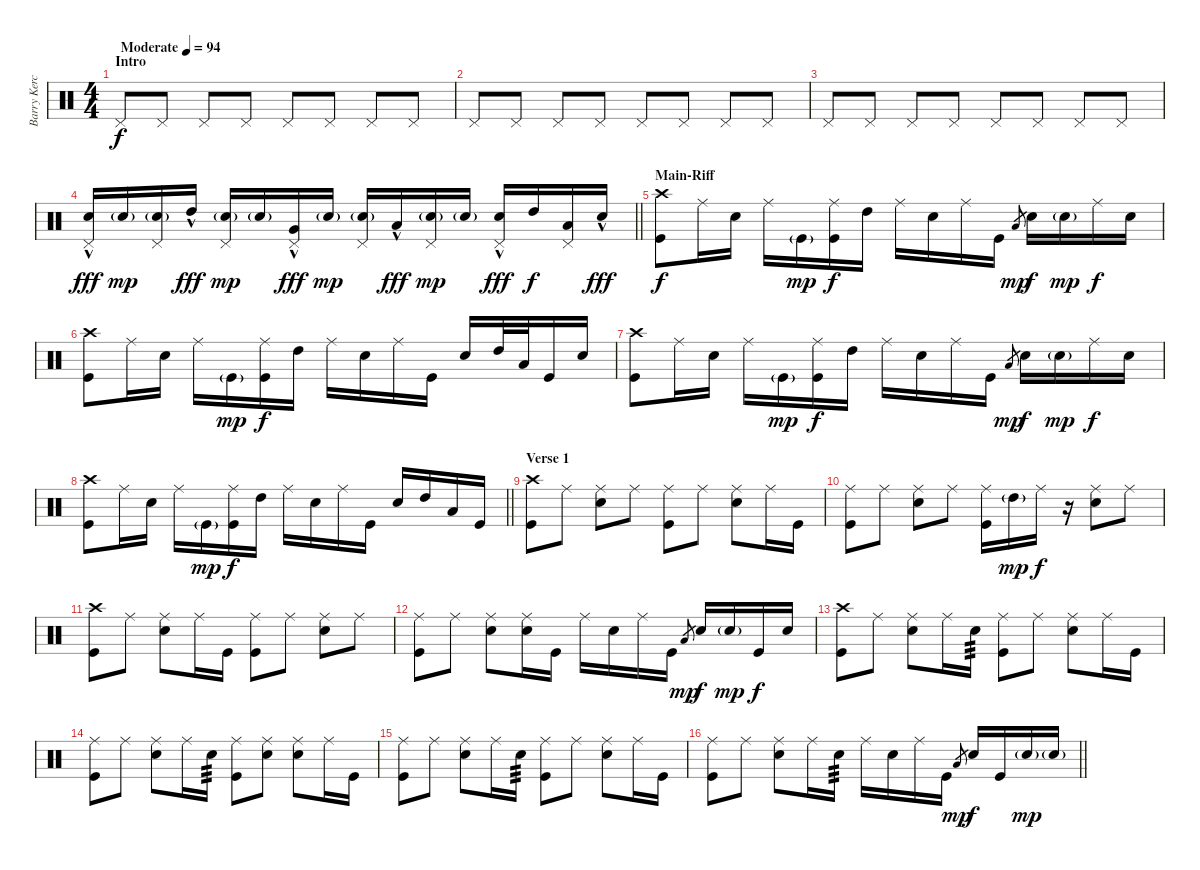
\track ("Barry Kerch" "Barry Kerc") {instrument percussion}
\staff {score}
\articulation defaults
\ts (4 4)
\section ("" "Intro")
\tempo (94 "Moderate")
\clef neutral
\ks c "Pedal Hi-Hat (hit)".8{dy f} "Pedal Hi-Hat (hit)".8 "Pedal Hi-Hat (hit)".8 "Pedal Hi-Hat (hit)".8 "Pedal Hi-Hat (hit)".8 "Pedal Hi-Hat (hit)".8 "Pedal Hi-Hat (hit)".8 "Pedal Hi-Hat (hit)".8
|
"Pedal Hi-Hat (hit)".8 "Pedal Hi-Hat (hit)".8 "Pedal Hi-Hat (hit)".8 "Pedal Hi-Hat (hit)".8 "Pedal Hi-Hat (hit)".8 "Pedal Hi-Hat (hit)".8 "Pedal Hi-Hat (hit)".8 "Pedal Hi-Hat (hit)".8 |
"Pedal Hi-Hat (hit)".8 "Pedal Hi-Hat (hit)".8 "Pedal Hi-Hat (hit)".8 "Pedal Hi-Hat (hit)".8 "Pedal Hi-Hat (hit)".8 "Pedal Hi-Hat (hit)".8 "Pedal Hi-Hat (hit)".8 "Pedal Hi-Hat (hit)".8 |
\barLineRight lightlight
("Snare (hit) 2"{hac} "Pedal Hi-Hat (hit)").16{dy fff} "Snare (hit) 2"{g}.16{dy mp} ("Snare (hit) 2"{g} "Pedal Hi-Hat (hit)").16 "High Tom (hit)"{hac}.16{dy fff} ("Snare (hit) 2"{g} "Pedal Hi-Hat (hit)").16{dy mp} "Snare (hit) 2"{g}.16 ("Very Low Tom (hit)"{hac} "Pedal Hi-Hat (hit)").16{dy fff} "Snare (hit) 2"{g}.16{dy mp} ("Snare (hit) 2"{g} "Pedal Hi-Hat (hit)").16 "Low Tom (hit)"{hac}.16{dy fff} ("Snare (hit) 2"{g} "Pedal Hi-Hat (hit)").16{dy mp} "Snare (hit) 2"{g}.16 ("Snare (hit) 2"{hac} "Pedal Hi-Hat (hit)").16{dy fff} "High Tom (hit)".16{dy f} ("Low Tom (hit)" "Pedal Hi-Hat (hit)").16 "Snare (hit) 2"{hac}.16{dy fff} |
\section ("" "Main-Riff")
("Crash high (hit)" "Kick (hit)").8{dy f} "Ride (middle)".16 "Snare (hit) 2".16 "Ride (middle)".16 "Kick (hit)"{g}.16{dy mp} ("Ride (middle)" "Kick (hit)").16{dy f} "High Tom (hit)".16 "Ride (middle)".16 "Snare (hit) 2".16 "Ride (middle)".16 "Kick (hit)".16 "Low Tom (hit)".8{gr dy mp} "Snare (hit) 2".16{dy f} "Snare (hit) 2"{g}.16{dy mp} "Ride (middle)".16{dy f} "Snare (hit) 2".16 |
("Crash high (hit)" "Kick (hit)").8 "Ride (middle)".16 "Snare (hit) 2".16 "Ride (middle)".16 "Kick (hit)"{g}.16{dy mp} ("Ride (middle)" "Kick (hit)").16{dy f} "High Tom (hit)".16 "Ride (middle)".16 "Snare (hit) 2".16 "Ride (middle)".16 "Kick (hit)".16 "Snare (hit) 2".16 "High Tom (hit)".32 "Low Tom (hit)".32 "Kick (hit)".16 "Snare (hit) 2".16 |
("Crash high (hit)" "Kick (hit)").8 "Ride (middle)".16 "Snare (hit) 2".16 "Ride (middle)".16 "Kick (hit)"{g}.16{dy mp} ("Ride (middle)" "Kick (hit)").16{dy f} "High Tom (hit)".16 "Ride (middle)".16 "Snare (hit) 2".16 "Ride (middle)".16 "Kick (hit)".16 "Low Tom (hit)".8{gr dy mp} "Snare (hit) 2".16{dy f} "Snare (hit) 2"{g}.16{dy mp} "Ride (middle)".16{dy f} "Snare (hit) 2".16 |
\barLineRight lightlight
("Crash high (hit)" "Kick (hit)").8 "Ride (middle)".16 "Snare (hit) 2".16 "Ride (middle)".16 "Kick (hit)"{g}.16{dy mp} ("Ride (middle)" "Kick (hit)").16{dy f} "High Tom (hit)".16 "Ride (middle)".16 "Snare (hit) 2".16 "Ride (middle)".16 "Kick (hit)".16 "Snare (hit) 2".16 "High Tom (hit)".16 "Low Tom (hit)".16 "Kick (hit)".16 |
\section ("" "Verse 1")
("Crash high (hit)" "Kick (hit)").8 "Ride (middle)".8 ("Ride (middle)" "Snare (hit) 2").8 "Ride (middle)".8 ("Ride (middle)" "Kick (hit)").8 "Ride (middle)".8 ("Ride (middle)" "Snare (hit) 2").8 "Ride (middle)".16 "Kick (hit)".16 |
("Ride (middle)" "Kick (hit)").8 "Ride (middle)".8 ("Ride (middle)" "Snare (hit) 2").8 "Ride (middle)".8 ("Ride (middle)" "Kick (hit)").16 "High Tom (hit)"{g}.16{dy mp} "Ride (middle)".16{dy f} r.16 ("Ride (middle)" "Snare (hit) 2").8 "Ride (middle)".8 |
("Crash high (hit)" "Kick (hit)").8 "Ride (middle)".8 ("Ride (middle)" "Snare (hit) 2").8 "Ride (middle)".16 "Kick (hit)".16 ("Ride (middle)" "Kick (hit)").8 "Ride (middle)".8 ("Ride (middle)" "Snare (hit) 2").8 "Ride (middle)".8 |
("Ride (middle)" "Kick (hit)").8 "Ride (middle)".8 ("Ride (middle)" "Snare (hit) 2").8 ("Ride (middle)" "Snare (hit) 2").16 "Kick (hit)".16 "Ride (middle)".16 "Snare (hit) 2".16 "Ride (middle)".16 "Kick (hit)".16 "Low Tom (hit)".8{gr dy mp} "Snare (hit) 2".16{dy f} "Snare (hit) 2"{g}.16{dy mp} "Kick (hit)".16{dy f} "Snare (hit) 2".16 |
("Crash high (hit)" "Kick (hit)").8 "Ride (middle)".8 ("Ride (middle)" "Snare (hit) 2").8 "Ride (middle)".16 "Snare (hit) 2".16{tp 3} ("Ride (middle)" "Kick (hit)").8 "Ride (middle)".8 ("Ride (middle)" "Snare (hit) 2").8 "Ride (middle)".16 "Kick (hit)".16 |
("Ride (middle)" "Kick (hit)").8 "Ride (middle)".8 ("Ride (middle)" "Snare (hit) 2").8 "Ride (middle)".16 "Snare (hit) 2".16{tp 3} ("Ride (middle)" "Kick (hit)").8 ("Ride (middle)" "Snare (hit) 2").8 ("Ride (middle)" "Snare (hit) 2").8 "Ride (middle)".16 "Kick (hit)".16 |
("Ride (middle)" "Kick (hit)").8 "Ride (middle)".8 ("Ride (middle)" "Snare (hit) 2").8 "Ride (middle)".16 "Snare (hit) 2".16{tp 3} ("Ride (middle)" "Kick (hit)").8 "Ride (middle)".8 ("Ride (middle)" "Snare (hit) 2").8 "Ride (middle)".16 "Kick (hit)".16 |
\barLineRight lightlight
("Ride (middle)" "Kick (hit)").8 "Ride (middle)".8 ("Ride (middle)" "Snare (hit) 2").8 "Ride (middle)".16 "Snare (hit) 2".16{tp 3} "Ride (middle)".16 "Snare (hit) 2".16 "Ride (middle)".16 "Kick (hit)".16 "Low Tom (hit)".8{gr dy mp} "Snare (hit) 2".16{dy f} "Kick (hit)".16 "Snare (hit) 2"{g}.16{dy mp} "Snare (hit) 2"{g}.16
